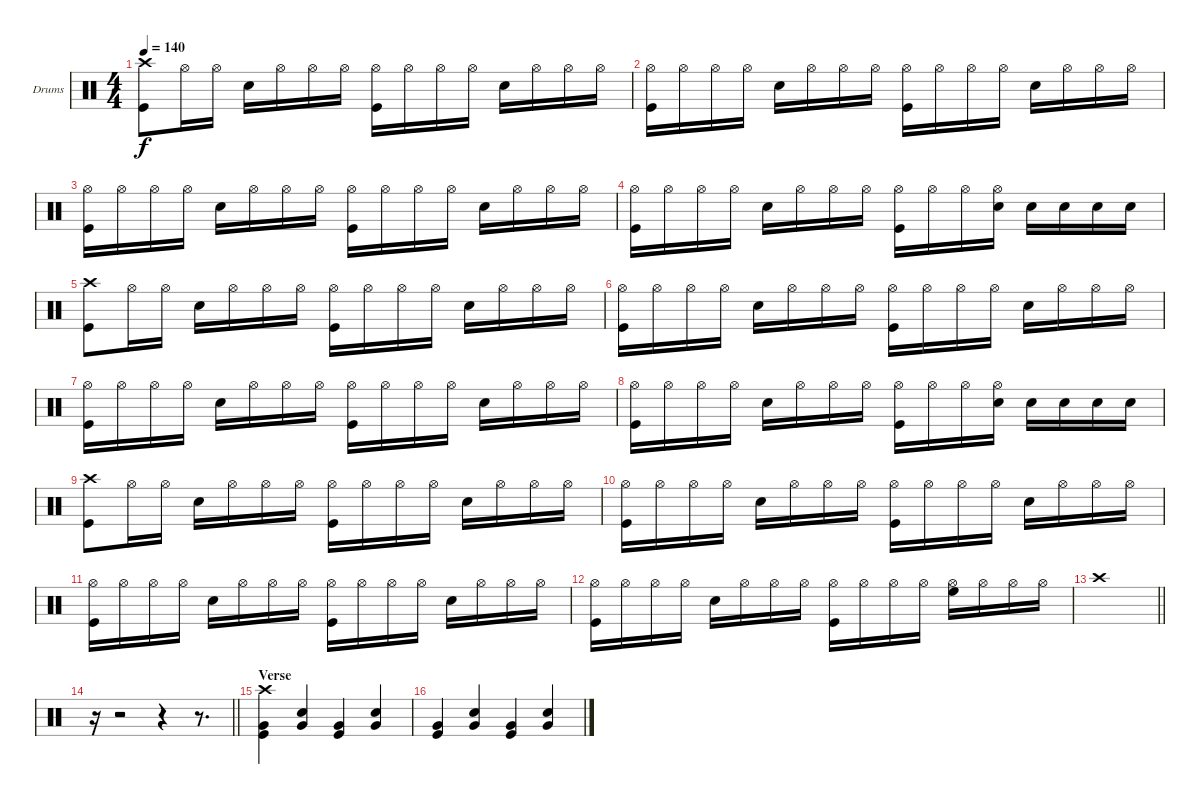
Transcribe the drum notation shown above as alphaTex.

\bracketExtendMode groupsimilarinstruments
\firstSystemTrackNameOrientation horizontal
\otherSystemsTrackNameOrientation horizontal
\track ("Drumkit" "Drums") {instrument percussion}
\staff {score}
\articulation defaults
\ts (4 4)
\tempo 140
\clef neutral
\ks c
("Crash high (hit)" "Kick (hit)").8{dy f} "Hi-Hat (open)".16 "Hi-Hat (open)".16 "Snare (hit) 2".16 "Hi-Hat (open)".16 "Hi-Hat (open)".16 "Hi-Hat (open)".16 ("Hi-Hat (open)" "Kick (hit)").16 "Hi-Hat (open)".16 "Hi-Hat (open)".16 "Hi-Hat (open)".16 "Snare (hit) 2".16 "Hi-Hat (open)".16 "Hi-Hat (open)".16 "Hi-Hat (open)".16 |
("Hi-Hat (open)" "Kick (hit)").16 "Hi-Hat (open)".16 "Hi-Hat (open)".16 "Hi-Hat (open)".16 "Snare (hit) 2".16 "Hi-Hat (open)".16 "Hi-Hat (open)".16 "Hi-Hat (open)".16 ("Hi-Hat (open)" "Kick (hit)").16 "Hi-Hat (open)".16 "Hi-Hat (open)".16 "Hi-Hat (open)".16 "Snare (hit) 2".16 "Hi-Hat (open)".16 "Hi-Hat (open)".16 "Hi-Hat (open)".16 |
("Hi-Hat (open)" "Kick (hit)").16 "Hi-Hat (open)".16 "Hi-Hat (open)".16 "Hi-Hat (open)".16 "Snare (hit) 2".16 "Hi-Hat (open)".16 "Hi-Hat (open)".16 "Hi-Hat (open)".16 ("Hi-Hat (open)" "Kick (hit)").16 "Hi-Hat (open)".16 "Hi-Hat (open)".16 "Hi-Hat (open)".16 "Snare (hit) 2".16 "Hi-Hat (open)".16 "Hi-Hat (open)".16 "Hi-Hat (open)".16 |
("Hi-Hat (open)" "Kick (hit)").16 "Hi-Hat (open)".16 "Hi-Hat (open)".16 "Hi-Hat (open)".16 "Snare (hit) 2".16 "Hi-Hat (open)".16 "Hi-Hat (open)".16 "Hi-Hat (open)".16 ("Hi-Hat (open)" "Kick (hit)").16 "Hi-Hat (open)".16 "Hi-Hat (open)".16 ("Hi-Hat (open)" "Snare (hit) 2").16 "Snare (hit) 2".16 "Snare (hit) 2".16 "Snare (hit) 2".16 "Snare (hit) 2".16 |
("Crash high (hit)" "Kick (hit)").8 "Hi-Hat (open)".16 "Hi-Hat (open)".16 "Snare (hit) 2".16 "Hi-Hat (open)".16 "Hi-Hat (open)".16 "Hi-Hat (open)".16 ("Hi-Hat (open)" "Kick (hit)").16 "Hi-Hat (open)".16 "Hi-Hat (open)".16 "Hi-Hat (open)".16 "Snare (hit) 2".16 "Hi-Hat (open)".16 "Hi-Hat (open)".16 "Hi-Hat (open)".16 |
("Hi-Hat (open)" "Kick (hit)").16 "Hi-Hat (open)".16 "Hi-Hat (open)".16 "Hi-Hat (open)".16 "Snare (hit) 2".16 "Hi-Hat (open)".16 "Hi-Hat (open)".16 "Hi-Hat (open)".16 ("Hi-Hat (open)" "Kick (hit)").16 "Hi-Hat (open)".16 "Hi-Hat (open)".16 "Hi-Hat (open)".16 "Snare (hit) 2".16 "Hi-Hat (open)".16 "Hi-Hat (open)".16 "Hi-Hat (open)".16 |
("Hi-Hat (open)" "Kick (hit)").16 "Hi-Hat (open)".16 "Hi-Hat (open)".16 "Hi-Hat (open)".16 "Snare (hit) 2".16 "Hi-Hat (open)".16 "Hi-Hat (open)".16 "Hi-Hat (open)".16 ("Hi-Hat (open)" "Kick (hit)").16 "Hi-Hat (open)".16 "Hi-Hat (open)".16 "Hi-Hat (open)".16 "Snare (hit) 2".16 "Hi-Hat (open)".16 "Hi-Hat (open)".16 "Hi-Hat (open)".16 |
("Hi-Hat (open)" "Kick (hit)").16 "Hi-Hat (open)".16 "Hi-Hat (open)".16 "Hi-Hat (open)".16 "Snare (hit) 2".16 "Hi-Hat (open)".16 "Hi-Hat (open)".16 "Hi-Hat (open)".16 ("Hi-Hat (open)" "Kick (hit)").16 "Hi-Hat (open)".16 "Hi-Hat (open)".16 ("Hi-Hat (open)" "Snare (hit) 2").16 "Snare (hit) 2".16 "Snare (hit) 2".16 "Snare (hit) 2".16 "Snare (hit) 2".16 |
("Crash high (hit)" "Kick (hit)").8 "Hi-Hat (open)".16 "Hi-Hat (open)".16 "Snare (hit) 2".16 "Hi-Hat (open)".16 "Hi-Hat (open)".16 "Hi-Hat (open)".16 ("Hi-Hat (open)" "Kick (hit)").16 "Hi-Hat (open)".16 "Hi-Hat (open)".16 "Hi-Hat (open)".16 "Snare (hit) 2".16 "Hi-Hat (open)".16 "Hi-Hat (open)".16 "Hi-Hat (open)".16 |
("Hi-Hat (open)" "Kick (hit)").16 "Hi-Hat (open)".16 "Hi-Hat (open)".16 "Hi-Hat (open)".16 "Snare (hit) 2".16 "Hi-Hat (open)".16 "Hi-Hat (open)".16 "Hi-Hat (open)".16 ("Hi-Hat (open)" "Kick (hit)").16 "Hi-Hat (open)".16 "Hi-Hat (open)".16 "Hi-Hat (open)".16 "Snare (hit) 2".16 "Hi-Hat (open)".16 "Hi-Hat (open)".16 "Hi-Hat (open)".16 |
("Hi-Hat (open)" "Kick (hit)").16 "Hi-Hat (open)".16 "Hi-Hat (open)".16 "Hi-Hat (open)".16 "Snare (hit) 2".16 "Hi-Hat (open)".16 "Hi-Hat (open)".16 "Hi-Hat (open)".16 ("Hi-Hat (open)" "Kick (hit)").16 "Hi-Hat (open)".16 "Hi-Hat (open)".16 "Hi-Hat (open)".16 "Snare (hit) 2".16 "Hi-Hat (open)".16 "Hi-Hat (open)".16 "Hi-Hat (open)".16 |
("Hi-Hat (open)" "Kick (hit)").16 "Hi-Hat (open)".16 "Hi-Hat (open)".16 "Hi-Hat (open)".16 "Snare (hit) 2".16 "Hi-Hat (open)".16 "Hi-Hat (open)".16 "Hi-Hat (open)".16 ("Hi-Hat (open)" "Kick (hit)").16 "Hi-Hat (open)".16 "Hi-Hat (open)".16 "Hi-Hat (open)".16 ("Hi-Hat (open)" "High Floor Tom (hit)").16 "Hi-Hat (open)".16 "Hi-Hat (open)".16 "Hi-Hat (open)".16 |
\barLineRight lightlight "Crash high (hit)".1
|
\section ("" "")
\barLineRight lightlight
r.16 r.2 r.4 r.8{d} |
\section ("" "Verse")
("Crash high (hit)" "Very Low Tom (hit)" "Kick (hit)").4 ("Very Low Tom (hit)" "Snare (hit) 2").4 ("Very Low Tom (hit)" "Kick (hit)").4 ("Very Low Tom (hit)" "Snare (hit) 2").4 |
("Very Low Tom (hit)" "Kick (hit)").4 ("Very Low Tom (hit)" "Snare (hit) 2").4 ("Very Low Tom (hit)" "Kick (hit)").4 ("Very Low Tom (hit)" "Snare (hit) 2").4
